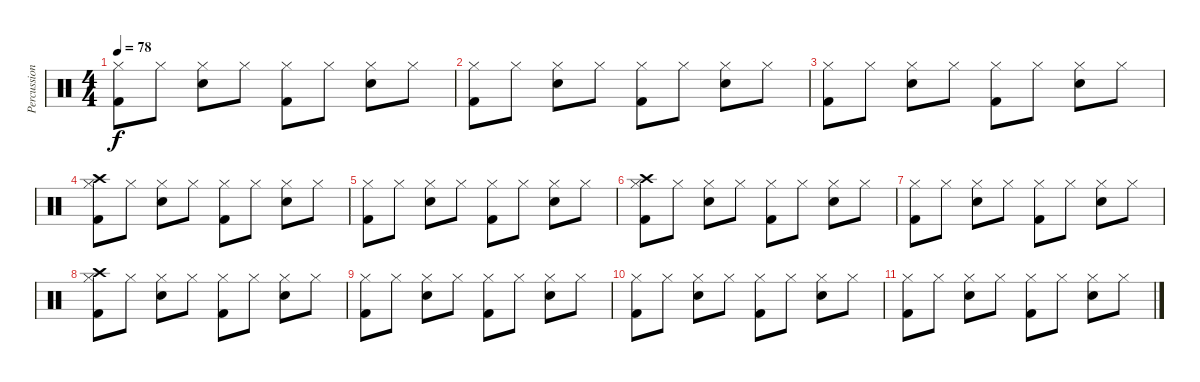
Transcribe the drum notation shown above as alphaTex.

\track ("Percussioni" "Percussion") {instrument percussion}
\staff {score}
\articulation defaults
\ts (4 4)
\tempo 78
\clef neutral
\ks c
("Hi-Hat (closed)" "Kick (hit) 2").8{dy f} "Hi-Hat (closed)".8 ("Hi-Hat (closed)" "Snare (hit) 2").8 "Hi-Hat (closed)".8 ("Hi-Hat (closed)" "Kick (hit) 2").8 "Hi-Hat (closed)".8 ("Hi-Hat (closed)" "Snare (hit) 2").8 "Hi-Hat (closed)".8 |
("Hi-Hat (closed)" "Kick (hit) 2").8 "Hi-Hat (closed)".8 ("Hi-Hat (closed)" "Snare (hit) 2").8 "Hi-Hat (closed)".8 ("Hi-Hat (closed)" "Kick (hit) 2").8 "Hi-Hat (closed)".8 ("Hi-Hat (closed)" "Snare (hit) 2").8 "Hi-Hat (closed)".8 |
("Hi-Hat (closed)" "Kick (hit) 2").8 "Hi-Hat (closed)".8 ("Hi-Hat (closed)" "Snare (hit) 2").8 "Hi-Hat (closed)".8 ("Hi-Hat (closed)" "Kick (hit) 2").8 "Hi-Hat (closed)".8 ("Hi-Hat (closed)" "Snare (hit) 2").8 "Hi-Hat (closed)".8 |
("Hi-Hat (closed)" "Kick (hit) 2" "Crash high (hit)").8 "Hi-Hat (closed)".8 ("Hi-Hat (closed)" "Snare (hit) 2").8 "Hi-Hat (closed)".8 ("Hi-Hat (closed)" "Kick (hit) 2").8 "Hi-Hat (closed)".8 ("Hi-Hat (closed)" "Snare (hit) 2").8 "Hi-Hat (closed)".8 |
("Hi-Hat (closed)" "Kick (hit) 2").8 "Hi-Hat (closed)".8 ("Hi-Hat (closed)" "Snare (hit) 2").8 "Hi-Hat (closed)".8 ("Hi-Hat (closed)" "Kick (hit) 2").8 "Hi-Hat (closed)".8 ("Hi-Hat (closed)" "Snare (hit) 2").8 "Hi-Hat (closed)".8 |
("Hi-Hat (closed)" "Kick (hit) 2" "Crash high (hit)").8 "Hi-Hat (closed)".8 ("Hi-Hat (closed)" "Snare (hit) 2").8 "Hi-Hat (closed)".8 ("Hi-Hat (closed)" "Kick (hit) 2").8 "Hi-Hat (closed)".8 ("Hi-Hat (closed)" "Snare (hit) 2").8 "Hi-Hat (closed)".8 |
("Hi-Hat (closed)" "Kick (hit) 2").8 "Hi-Hat (closed)".8 ("Hi-Hat (closed)" "Snare (hit) 2").8 "Hi-Hat (closed)".8 ("Hi-Hat (closed)" "Kick (hit) 2").8 "Hi-Hat (closed)".8 ("Hi-Hat (closed)" "Snare (hit) 2").8 "Hi-Hat (closed)".8 |
("Hi-Hat (closed)" "Kick (hit) 2" "Crash high (hit)").8 "Hi-Hat (closed)".8 ("Hi-Hat (closed)" "Snare (hit) 2").8 "Hi-Hat (closed)".8 ("Hi-Hat (closed)" "Kick (hit) 2").8 "Hi-Hat (closed)".8 ("Hi-Hat (closed)" "Snare (hit) 2").8 "Hi-Hat (closed)".8 |
("Hi-Hat (closed)" "Kick (hit) 2").8 "Hi-Hat (closed)".8 ("Hi-Hat (closed)" "Snare (hit) 2").8 "Hi-Hat (closed)".8 ("Hi-Hat (closed)" "Kick (hit) 2").8 "Hi-Hat (closed)".8 ("Hi-Hat (closed)" "Snare (hit) 2").8 "Hi-Hat (closed)".8 |
("Hi-Hat (closed)" "Kick (hit) 2").8 "Hi-Hat (closed)".8 ("Hi-Hat (closed)" "Snare (hit) 2").8 "Hi-Hat (closed)".8 ("Hi-Hat (closed)" "Kick (hit) 2").8 "Hi-Hat (closed)".8 ("Hi-Hat (closed)" "Snare (hit) 2").8 "Hi-Hat (closed)".8 |
("Hi-Hat (closed)" "Kick (hit) 2").8 "Hi-Hat (closed)".8 ("Hi-Hat (closed)" "Snare (hit) 2").8 "Hi-Hat (closed)".8 ("Hi-Hat (closed)" "Kick (hit) 2").8 "Hi-Hat (closed)".8 ("Hi-Hat (closed)" "Snare (hit) 2").8 "Hi-Hat (closed)".8
